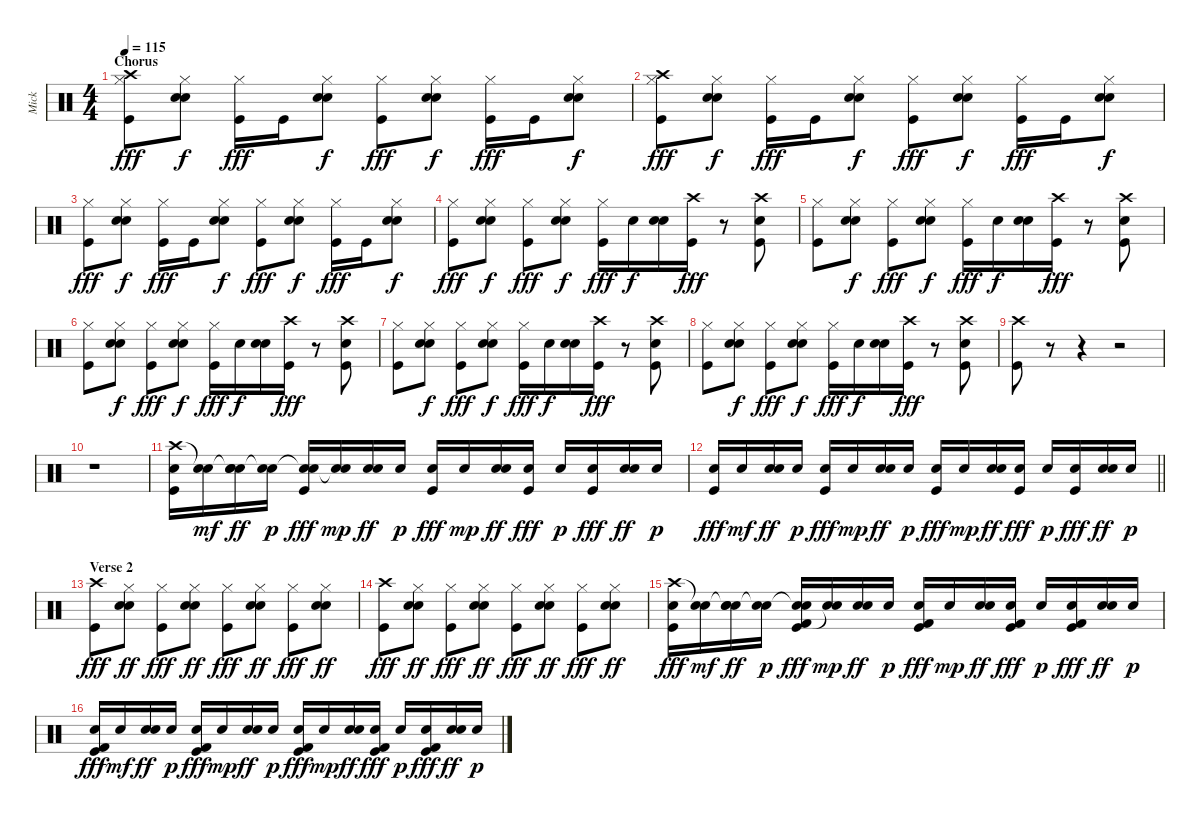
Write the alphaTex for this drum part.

\track ("Mick" "Mick") {instrument percussion}
\staff {score}
\articulation defaults
\ts (4 4)
\section ("" "Chorus")
\tempo 115
\clef neutral
\ks c
("Crash high (hit)" "Hi-Hat (closed)" "Kick (hit)").8{dy fff} ("Hand Clap (hit)" "Hi-Hat (closed)" "Electric Snare (hit)").8{dy f} ("Hi-Hat (closed)" "Kick (hit)").16{dy fff} "Kick (hit)".16 ("Hand Clap (hit)" "Hi-Hat (closed)" "Electric Snare (hit)").8{dy f} ("Hi-Hat (closed)" "Kick (hit)").8{dy fff} ("Hand Clap (hit)" "Hi-Hat (closed)" "Electric Snare (hit)").8{dy f} ("Hi-Hat (closed)" "Kick (hit)").16{dy fff} "Kick (hit)".16 ("Hand Clap (hit)" "Hi-Hat (closed)" "Electric Snare (hit)").8{dy f} |
("Crash high (hit)" "Hi-Hat (closed)" "Kick (hit)").8{dy fff} ("Hand Clap (hit)" "Hi-Hat (closed)" "Electric Snare (hit)").8{dy f} ("Hi-Hat (closed)" "Kick (hit)").16{dy fff} "Kick (hit)".16 ("Hand Clap (hit)" "Hi-Hat (closed)" "Electric Snare (hit)").8{dy f} ("Hi-Hat (closed)" "Kick (hit)").8{dy fff} ("Hand Clap (hit)" "Hi-Hat (closed)" "Electric Snare (hit)").8{dy f} ("Hi-Hat (closed)" "Kick (hit)").16{dy fff} "Kick (hit)".16 ("Hand Clap (hit)" "Hi-Hat (closed)" "Electric Snare (hit)").8{dy f} |
("Hi-Hat (closed)" "Kick (hit)").8{dy fff} ("Hand Clap (hit)" "Hi-Hat (closed)" "Electric Snare (hit)").8{dy f} ("Hi-Hat (closed)" "Kick (hit)").16{dy fff} "Kick (hit)".16 ("Hand Clap (hit)" "Hi-Hat (closed)" "Electric Snare (hit)").8{dy f} ("Hi-Hat (closed)" "Kick (hit)").8{dy fff} ("Hand Clap (hit)" "Hi-Hat (closed)" "Electric Snare (hit)").8{dy f} ("Hi-Hat (closed)" "Kick (hit)").16{dy fff} "Kick (hit)".16 ("Hand Clap (hit)" "Hi-Hat (closed)" "Electric Snare (hit)").8{dy f} |
("Hi-Hat (closed)" "Kick (hit)").8{dy fff} ("Hand Clap (hit)" "Hi-Hat (closed)" "Electric Snare (hit)").8{dy f} ("Hi-Hat (closed)" "Kick (hit)").8{dy fff} ("Hand Clap (hit)" "Hi-Hat (closed)" "Electric Snare (hit)").8{dy f} ("Hi-Hat (closed)" "Kick (hit)").16{dy fff} "Electric Snare (hit)".16{dy f} ("Hand Clap (hit)" "Electric Snare (hit)").16 ("Crash high (hit)" "Kick (hit)").16{dy fff} r.8 ("Crash high (hit)" "Hand Clap (hit)" "Kick (hit)").8 |
("Hi-Hat (closed)" "Kick (hit)").8 ("Hand Clap (hit)" "Hi-Hat (closed)" "Electric Snare (hit)").8{dy f} ("Hi-Hat (closed)" "Kick (hit)").8{dy fff} ("Hand Clap (hit)" "Hi-Hat (closed)" "Electric Snare (hit)").8{dy f} ("Hi-Hat (closed)" "Kick (hit)").16{dy fff} "Electric Snare (hit)".16{dy f} ("Hand Clap (hit)" "Electric Snare (hit)").16 ("Crash high (hit)" "Kick (hit)").16{dy fff} r.8 ("Crash high (hit)" "Hand Clap (hit)" "Kick (hit)").8 |
("Hi-Hat (closed)" "Kick (hit)").8 ("Hand Clap (hit)" "Hi-Hat (closed)" "Electric Snare (hit)").8{dy f} ("Hi-Hat (closed)" "Kick (hit)").8{dy fff} ("Hand Clap (hit)" "Hi-Hat (closed)" "Electric Snare (hit)").8{dy f} ("Hi-Hat (closed)" "Kick (hit)").16{dy fff} "Electric Snare (hit)".16{dy f} ("Hand Clap (hit)" "Electric Snare (hit)").16 ("Crash high (hit)" "Kick (hit)").16{dy fff} r.8 ("Crash high (hit)" "Hand Clap (hit)" "Kick (hit)").8 |
("Hi-Hat (closed)" "Kick (hit)").8 ("Hand Clap (hit)" "Hi-Hat (closed)" "Electric Snare (hit)").8{dy f} ("Hi-Hat (closed)" "Kick (hit)").8{dy fff} ("Hand Clap (hit)" "Hi-Hat (closed)" "Electric Snare (hit)").8{dy f} ("Hi-Hat (closed)" "Kick (hit)").16{dy fff} "Electric Snare (hit)".16{dy f} ("Hand Clap (hit)" "Electric Snare (hit)").16 ("Crash high (hit)" "Kick (hit)").16{dy fff} r.8 ("Crash high (hit)" "Hand Clap (hit)" "Kick (hit)").8 |
("Hi-Hat (closed)" "Kick (hit)").8 ("Hand Clap (hit)" "Hi-Hat (closed)" "Electric Snare (hit)").8{dy f} ("Hi-Hat (closed)" "Kick (hit)").8{dy fff} ("Hand Clap (hit)" "Hi-Hat (closed)" "Electric Snare (hit)").8{dy f} ("Hi-Hat (closed)" "Kick (hit)").16{dy fff} "Electric Snare (hit)".16{dy f} ("Hand Clap (hit)" "Electric Snare (hit)").16 ("Crash high (hit)" "Kick (hit)").16{dy fff} r.8 ("Crash high (hit)" "Hand Clap (hit)" "Kick (hit)").8 |
("Crash high (hit)" "Kick (hit)").8 r.8 r.4 r.2 |
r.1 |
("Crash high (hit)" "Electric Snare (hit)" "Kick (hit)").16 ("Snare (hit)"{t} "Electric Snare (hit)").16{dy mf} ("Hand Clap (hit)" "Snare (hit)"{t} "Electric Snare (hit)").16{dy ff} ("Snare (hit)"{t} "Electric Snare (hit)").16{dy p} ("Snare (hit)"{t} "Electric Snare (hit)" "Kick (hit)").16{dy fff} ("Snare (hit)"{t} "Electric Snare (hit)").16{dy mp} ("Hand Clap (hit)" "Electric Snare (hit)").16{dy ff} "Electric Snare (hit)".16{dy p} ("Electric Snare (hit)" "Kick (hit)").16{dy fff} "Electric Snare (hit)".16{dy mp} ("Hand Clap (hit)" "Electric Snare (hit)").16{dy ff} ("Electric Snare (hit)" "Kick (hit)").16{dy fff} "Electric Snare (hit)".16{dy p} ("Electric Snare (hit)" "Kick (hit)").16{dy fff} ("Hand Clap (hit)" "Electric Snare (hit)").16{dy ff} "Electric Snare (hit)".16{dy p} |
\barLineRight lightlight
("Electric Snare (hit)" "Kick (hit)").16{dy fff} "Electric Snare (hit)".16{dy mf} ("Hand Clap (hit)" "Electric Snare (hit)").16{dy ff} "Electric Snare (hit)".16{dy p} ("Electric Snare (hit)" "Kick (hit)").16{dy fff} "Electric Snare (hit)".16{dy mp} ("Hand Clap (hit)" "Electric Snare (hit)").16{dy ff} "Electric Snare (hit)".16{dy p} ("Electric Snare (hit)" "Kick (hit)").16{dy fff} "Electric Snare (hit)".16{dy mp} ("Hand Clap (hit)" "Electric Snare (hit)").16{dy ff} ("Electric Snare (hit)" "Kick (hit)").16{dy fff} "Electric Snare (hit)".16{dy p} ("Electric Snare (hit)" "Kick (hit)").16{dy fff} ("Hand Clap (hit)" "Electric Snare (hit)").16{dy ff} "Electric Snare (hit)".16{dy p} |
\section ("" "Verse 2")
("Crash high (hit)" "Kick (hit)").8{dy fff} ("Hand Clap (hit)" "Hi-Hat (closed)" "Electric Snare (hit)").8{dy ff} ("Hi-Hat (closed)" "Kick (hit)").8{dy fff} ("Hand Clap (hit)" "Hi-Hat (closed)" "Electric Snare (hit)").8{dy ff} ("Hi-Hat (closed)" "Kick (hit)").8{dy fff} ("Hand Clap (hit)" "Hi-Hat (closed)" "Electric Snare (hit)").8{dy ff} ("Hi-Hat (closed)" "Kick (hit)").8{dy fff} ("Hand Clap (hit)" "Hi-Hat (closed)" "Electric Snare (hit)").8{dy ff} |
("Crash high (hit)" "Kick (hit)").8{dy fff} ("Hand Clap (hit)" "Hi-Hat (closed)" "Electric Snare (hit)").8{dy ff} ("Hi-Hat (closed)" "Kick (hit)").8{dy fff} ("Hand Clap (hit)" "Hi-Hat (closed)" "Electric Snare (hit)").8{dy ff} ("Hi-Hat (closed)" "Kick (hit)").8{dy fff} ("Hand Clap (hit)" "Hi-Hat (closed)" "Electric Snare (hit)").8{dy ff} ("Hi-Hat (closed)" "Kick (hit)").8{dy fff} ("Hand Clap (hit)" "Hi-Hat (closed)" "Electric Snare (hit)").8{dy ff} |
("Crash high (hit)" "Electric Snare (hit)" "Kick (hit)").16{dy fff} ("Snare (hit)"{t} "Electric Snare (hit)").16{dy mf} ("Hand Clap (hit)" "Snare (hit)"{t} "Electric Snare (hit)").16{dy ff} ("Snare (hit)"{t} "Electric Snare (hit)").16{dy p} ("Kick (hit) 2" "Snare (hit)"{t} "Electric Snare (hit)" "Kick (hit)").16{dy fff} ("Snare (hit)"{t} "Electric Snare (hit)").16{dy mp} ("Hand Clap (hit)" "Electric Snare (hit)").16{dy ff} "Electric Snare (hit)".16{dy p} ("Kick (hit) 2" "Electric Snare (hit)" "Kick (hit)").16{dy fff} "Electric Snare (hit)".16{dy mp} ("Hand Clap (hit)" "Electric Snare (hit)").16{dy ff} ("Kick (hit) 2" "Electric Snare (hit)" "Kick (hit)").16{dy fff} "Electric Snare (hit)".16{dy p} ("Kick (hit) 2" "Electric Snare (hit)" "Kick (hit)").16{dy fff} ("Hand Clap (hit)" "Electric Snare (hit)").16{dy ff} "Electric Snare (hit)".16{dy p} |
("Kick (hit) 2" "Electric Snare (hit)" "Kick (hit)").16{dy fff} "Electric Snare (hit)".16{dy mf} ("Hand Clap (hit)" "Electric Snare (hit)").16{dy ff} "Electric Snare (hit)".16{dy p} ("Kick (hit) 2" "Electric Snare (hit)" "Kick (hit)").16{dy fff} "Electric Snare (hit)".16{dy mp} ("Hand Clap (hit)" "Electric Snare (hit)").16{dy ff} "Electric Snare (hit)".16{dy p} ("Kick (hit) 2" "Electric Snare (hit)" "Kick (hit)").16{dy fff} "Electric Snare (hit)".16{dy mp} ("Hand Clap (hit)" "Electric Snare (hit)").16{dy ff} ("Kick (hit) 2" "Electric Snare (hit)" "Kick (hit)").16{dy fff} "Electric Snare (hit)".16{dy p} ("Kick (hit) 2" "Electric Snare (hit)" "Kick (hit)").16{dy fff} ("Hand Clap (hit)" "Electric Snare (hit)").16{dy ff} "Electric Snare (hit)".16{dy p}
